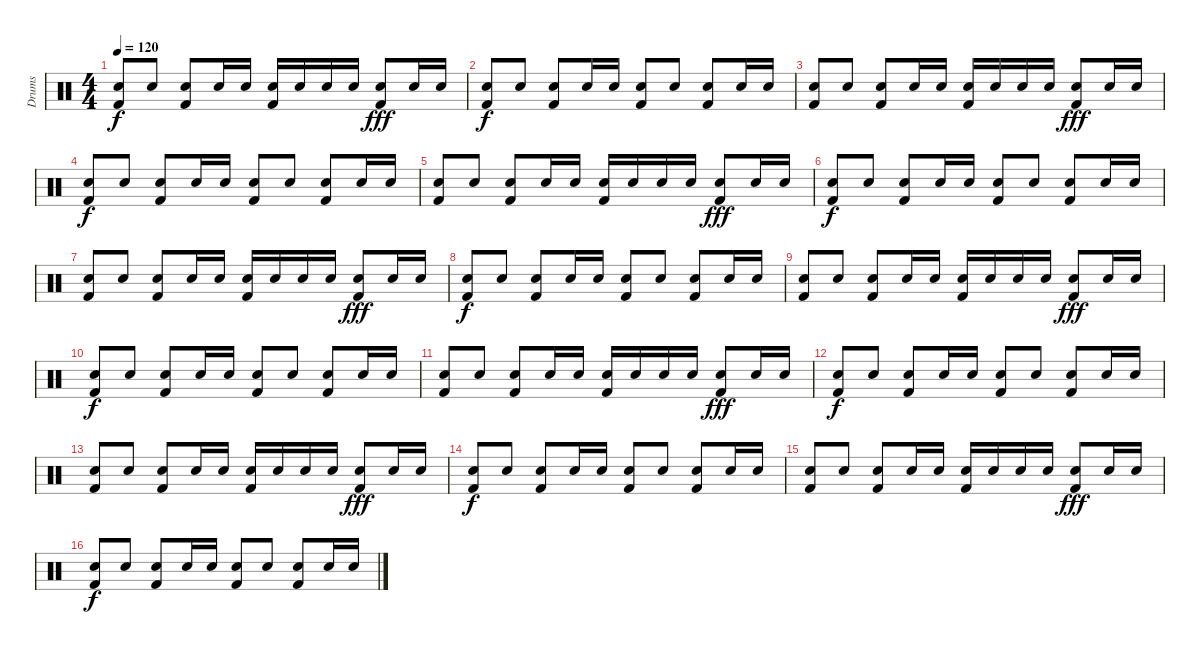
\track ("Drums" "Drums") {instrument percussion}
\staff {score}
\articulation defaults
\ts (4 4)
\tempo 120
\clef neutral
\ks c
("Electric Snare (hit)" "Kick (hit) 2").8{dy f} "Electric Snare (hit)".8 ("Electric Snare (hit)" "Kick (hit) 2").8 "Electric Snare (hit)".16 "Electric Snare (hit)".16 ("Electric Snare (hit)" "Kick (hit) 2").16 "Electric Snare (hit)".16 "Electric Snare (hit)".16 "Electric Snare (hit)".16 ("Electric Snare (hit)" "Kick (hit) 2").8{dy fff} "Electric Snare (hit)".16 "Electric Snare (hit)".16 |
("Electric Snare (hit)" "Kick (hit) 2").8{dy f} "Electric Snare (hit)".8 ("Electric Snare (hit)" "Kick (hit) 2").8 "Electric Snare (hit)".16 "Electric Snare (hit)".16 ("Electric Snare (hit)" "Kick (hit) 2").8 "Electric Snare (hit)".8 ("Electric Snare (hit)" "Kick (hit) 2").8 "Electric Snare (hit)".16 "Electric Snare (hit)".16 |
("Electric Snare (hit)" "Kick (hit) 2").8 "Electric Snare (hit)".8 ("Electric Snare (hit)" "Kick (hit) 2").8 "Electric Snare (hit)".16 "Electric Snare (hit)".16 ("Electric Snare (hit)" "Kick (hit) 2").16 "Electric Snare (hit)".16 "Electric Snare (hit)".16 "Electric Snare (hit)".16 ("Electric Snare (hit)" "Kick (hit) 2").8{dy fff} "Electric Snare (hit)".16 "Electric Snare (hit)".16 |
("Electric Snare (hit)" "Kick (hit) 2").8{dy f} "Electric Snare (hit)".8 ("Electric Snare (hit)" "Kick (hit) 2").8 "Electric Snare (hit)".16 "Electric Snare (hit)".16 ("Electric Snare (hit)" "Kick (hit) 2").8 "Electric Snare (hit)".8 ("Electric Snare (hit)" "Kick (hit) 2").8 "Electric Snare (hit)".16 "Electric Snare (hit)".16 |
("Electric Snare (hit)" "Kick (hit) 2").8 "Electric Snare (hit)".8 ("Electric Snare (hit)" "Kick (hit) 2").8 "Electric Snare (hit)".16 "Electric Snare (hit)".16 ("Electric Snare (hit)" "Kick (hit) 2").16 "Electric Snare (hit)".16 "Electric Snare (hit)".16 "Electric Snare (hit)".16 ("Electric Snare (hit)" "Kick (hit) 2").8{dy fff} "Electric Snare (hit)".16 "Electric Snare (hit)".16 |
("Electric Snare (hit)" "Kick (hit) 2").8{dy f} "Electric Snare (hit)".8 ("Electric Snare (hit)" "Kick (hit) 2").8 "Electric Snare (hit)".16 "Electric Snare (hit)".16 ("Electric Snare (hit)" "Kick (hit) 2").8 "Electric Snare (hit)".8 ("Electric Snare (hit)" "Kick (hit) 2").8 "Electric Snare (hit)".16 "Electric Snare (hit)".16 |
("Electric Snare (hit)" "Kick (hit) 2").8 "Electric Snare (hit)".8 ("Electric Snare (hit)" "Kick (hit) 2").8 "Electric Snare (hit)".16 "Electric Snare (hit)".16 ("Electric Snare (hit)" "Kick (hit) 2").16 "Electric Snare (hit)".16 "Electric Snare (hit)".16 "Electric Snare (hit)".16 ("Electric Snare (hit)" "Kick (hit) 2").8{dy fff} "Electric Snare (hit)".16 "Electric Snare (hit)".16 |
("Electric Snare (hit)" "Kick (hit) 2").8{dy f} "Electric Snare (hit)".8 ("Electric Snare (hit)" "Kick (hit) 2").8 "Electric Snare (hit)".16 "Electric Snare (hit)".16 ("Electric Snare (hit)" "Kick (hit) 2").8 "Electric Snare (hit)".8 ("Electric Snare (hit)" "Kick (hit) 2").8 "Electric Snare (hit)".16 "Electric Snare (hit)".16 |
("Electric Snare (hit)" "Kick (hit) 2").8 "Electric Snare (hit)".8 ("Electric Snare (hit)" "Kick (hit) 2").8 "Electric Snare (hit)".16 "Electric Snare (hit)".16 ("Electric Snare (hit)" "Kick (hit) 2").16 "Electric Snare (hit)".16 "Electric Snare (hit)".16 "Electric Snare (hit)".16 ("Electric Snare (hit)" "Kick (hit) 2").8{dy fff} "Electric Snare (hit)".16 "Electric Snare (hit)".16 |
("Electric Snare (hit)" "Kick (hit) 2").8{dy f} "Electric Snare (hit)".8 ("Electric Snare (hit)" "Kick (hit) 2").8 "Electric Snare (hit)".16 "Electric Snare (hit)".16 ("Electric Snare (hit)" "Kick (hit) 2").8 "Electric Snare (hit)".8 ("Electric Snare (hit)" "Kick (hit) 2").8 "Electric Snare (hit)".16 "Electric Snare (hit)".16 |
("Electric Snare (hit)" "Kick (hit) 2").8 "Electric Snare (hit)".8 ("Electric Snare (hit)" "Kick (hit) 2").8 "Electric Snare (hit)".16 "Electric Snare (hit)".16 ("Electric Snare (hit)" "Kick (hit) 2").16 "Electric Snare (hit)".16 "Electric Snare (hit)".16 "Electric Snare (hit)".16 ("Electric Snare (hit)" "Kick (hit) 2").8{dy fff} "Electric Snare (hit)".16 "Electric Snare (hit)".16 |
("Electric Snare (hit)" "Kick (hit) 2").8{dy f} "Electric Snare (hit)".8 ("Electric Snare (hit)" "Kick (hit) 2").8 "Electric Snare (hit)".16 "Electric Snare (hit)".16 ("Electric Snare (hit)" "Kick (hit) 2").8 "Electric Snare (hit)".8 ("Electric Snare (hit)" "Kick (hit) 2").8 "Electric Snare (hit)".16 "Electric Snare (hit)".16 |
("Electric Snare (hit)" "Kick (hit) 2").8 "Electric Snare (hit)".8 ("Electric Snare (hit)" "Kick (hit) 2").8 "Electric Snare (hit)".16 "Electric Snare (hit)".16 ("Electric Snare (hit)" "Kick (hit) 2").16 "Electric Snare (hit)".16 "Electric Snare (hit)".16 "Electric Snare (hit)".16 ("Electric Snare (hit)" "Kick (hit) 2").8{dy fff} "Electric Snare (hit)".16 "Electric Snare (hit)".16 |
("Electric Snare (hit)" "Kick (hit) 2").8{dy f} "Electric Snare (hit)".8 ("Electric Snare (hit)" "Kick (hit) 2").8 "Electric Snare (hit)".16 "Electric Snare (hit)".16 ("Electric Snare (hit)" "Kick (hit) 2").8 "Electric Snare (hit)".8 ("Electric Snare (hit)" "Kick (hit) 2").8 "Electric Snare (hit)".16 "Electric Snare (hit)".16 |
("Electric Snare (hit)" "Kick (hit) 2").8 "Electric Snare (hit)".8 ("Electric Snare (hit)" "Kick (hit) 2").8 "Electric Snare (hit)".16 "Electric Snare (hit)".16 ("Electric Snare (hit)" "Kick (hit) 2").16 "Electric Snare (hit)".16 "Electric Snare (hit)".16 "Electric Snare (hit)".16 ("Electric Snare (hit)" "Kick (hit) 2").8{dy fff} "Electric Snare (hit)".16 "Electric Snare (hit)".16 |
("Electric Snare (hit)" "Kick (hit) 2").8{dy f} "Electric Snare (hit)".8 ("Electric Snare (hit)" "Kick (hit) 2").8 "Electric Snare (hit)".16 "Electric Snare (hit)".16 ("Electric Snare (hit)" "Kick (hit) 2").8 "Electric Snare (hit)".8 ("Electric Snare (hit)" "Kick (hit) 2").8 "Electric Snare (hit)".16 "Electric Snare (hit)".16
